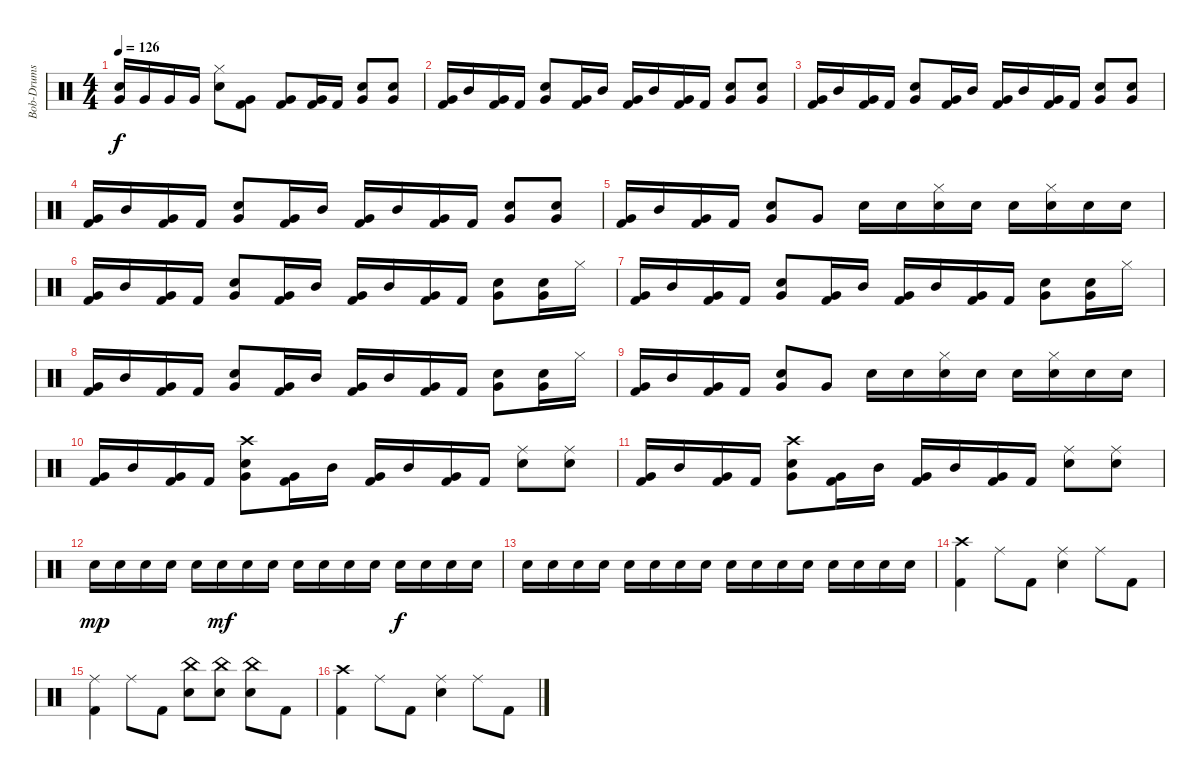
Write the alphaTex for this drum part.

\track ("Bob-Drums" "Bob-Drums") {instrument percussion}
\staff {score}
\articulation defaults
\ts (4 4)
\tempo 126
\clef neutral
\ks c
("Very Low Tom (hit)" "Snare (hit) 2").16{dy f} "Very Low Tom (hit)".16 "Very Low Tom (hit)".16 "Very Low Tom (hit)".16 ("Hi-Hat (closed)" "Snare (hit) 2").8 ("Very Low Tom (hit)" "Kick (hit) 2").8 ("Very Low Tom (hit)" "Kick (hit) 2").8 ("Very Low Tom (hit)" "Kick (hit) 2").16 "Kick (hit) 2".16 ("Very Low Tom (hit)" "Snare (hit) 2").8 ("Very Low Tom (hit)" "Snare (hit) 2").8 |
("Very Low Tom (hit)" "Kick (hit) 2").16 "Mid Tom (hit)".16 ("Very Low Tom (hit)" "Kick (hit) 2").16 "Kick (hit) 2".16 ("Very Low Tom (hit)" "Snare (hit) 2").8 ("Very Low Tom (hit)" "Kick (hit) 2").16 "Mid Tom (hit)".16 ("Very Low Tom (hit)" "Kick (hit) 2").16 "Mid Tom (hit)".16 ("Very Low Tom (hit)" "Kick (hit) 2").16 "Kick (hit) 2".16 ("Very Low Tom (hit)" "Snare (hit) 2").8 ("Very Low Tom (hit)" "Snare (hit) 2").8 |
("Very Low Tom (hit)" "Kick (hit) 2").16 "Mid Tom (hit)".16 ("Very Low Tom (hit)" "Kick (hit) 2").16 "Kick (hit) 2".16 ("Very Low Tom (hit)" "Snare (hit) 2").8 ("Very Low Tom (hit)" "Kick (hit) 2").16 "Mid Tom (hit)".16 ("Very Low Tom (hit)" "Kick (hit) 2").16 "Mid Tom (hit)".16 ("Very Low Tom (hit)" "Kick (hit) 2").16 "Kick (hit) 2".16 ("Very Low Tom (hit)" "Snare (hit) 2").8 ("Very Low Tom (hit)" "Snare (hit) 2").8 |
("Very Low Tom (hit)" "Kick (hit) 2").16 "Mid Tom (hit)".16 ("Very Low Tom (hit)" "Kick (hit) 2").16 "Kick (hit) 2".16 ("Very Low Tom (hit)" "Snare (hit) 2").8 ("Very Low Tom (hit)" "Kick (hit) 2").16 "Mid Tom (hit)".16 ("Very Low Tom (hit)" "Kick (hit) 2").16 "Mid Tom (hit)".16 ("Very Low Tom (hit)" "Kick (hit) 2").16 "Kick (hit) 2".16 ("Very Low Tom (hit)" "Snare (hit) 2").8 ("Very Low Tom (hit)" "Snare (hit) 2").8 |
("Very Low Tom (hit)" "Kick (hit) 2").16 "Mid Tom (hit)".16 ("Very Low Tom (hit)" "Kick (hit) 2").16 "Kick (hit) 2".16 ("Very Low Tom (hit)" "Snare (hit) 2").8 "Very Low Tom (hit)".8 "Snare (hit) 2".16 "Snare (hit) 2".16 ("Hi-Hat (closed)" "Snare (hit) 2").16 "Snare (hit) 2".16 "Snare (hit) 2".16 ("Hi-Hat (closed)" "Snare (hit) 2").16 "Snare (hit) 2".16 "Snare (hit) 2".16 |
("Very Low Tom (hit)" "Kick (hit) 2").16 "Mid Tom (hit)".16 ("Very Low Tom (hit)" "Kick (hit) 2").16 "Kick (hit) 2".16 ("Very Low Tom (hit)" "Snare (hit) 2").8 ("Very Low Tom (hit)" "Kick (hit) 2").16 "Mid Tom (hit)".16 ("Very Low Tom (hit)" "Kick (hit) 2").16 "Mid Tom (hit)".16 ("Very Low Tom (hit)" "Kick (hit) 2").16 "Kick (hit) 2".16 ("Very Low Tom (hit)" "Snare (hit) 2").8 ("Very Low Tom (hit)" "Snare (hit) 2").16 "Hi-Hat (closed)".16 |
("Very Low Tom (hit)" "Kick (hit) 2").16 "Mid Tom (hit)".16 ("Very Low Tom (hit)" "Kick (hit) 2").16 "Kick (hit) 2".16 ("Very Low Tom (hit)" "Snare (hit) 2").8 ("Very Low Tom (hit)" "Kick (hit) 2").16 "Mid Tom (hit)".16 ("Very Low Tom (hit)" "Kick (hit) 2").16 "Mid Tom (hit)".16 ("Very Low Tom (hit)" "Kick (hit) 2").16 "Kick (hit) 2".16 ("Very Low Tom (hit)" "Snare (hit) 2").8 ("Very Low Tom (hit)" "Snare (hit) 2").16 "Hi-Hat (closed)".16 |
("Very Low Tom (hit)" "Kick (hit) 2").16 "Mid Tom (hit)".16 ("Very Low Tom (hit)" "Kick (hit) 2").16 "Kick (hit) 2".16 ("Very Low Tom (hit)" "Snare (hit) 2").8 ("Very Low Tom (hit)" "Kick (hit) 2").16 "Mid Tom (hit)".16 ("Very Low Tom (hit)" "Kick (hit) 2").16 "Mid Tom (hit)".16 ("Very Low Tom (hit)" "Kick (hit) 2").16 "Kick (hit) 2".16 ("Very Low Tom (hit)" "Snare (hit) 2").8 ("Very Low Tom (hit)" "Snare (hit) 2").16 "Hi-Hat (closed)".16 |
("Very Low Tom (hit)" "Kick (hit) 2").16 "Mid Tom (hit)".16 ("Very Low Tom (hit)" "Kick (hit) 2").16 "Kick (hit) 2".16 ("Very Low Tom (hit)" "Snare (hit) 2").8 "Very Low Tom (hit)".8 "Snare (hit) 2".16 "Snare (hit) 2".16 ("Hi-Hat (closed)" "Snare (hit) 2").16 "Snare (hit) 2".16 "Snare (hit) 2".16 ("Hi-Hat (closed)" "Snare (hit) 2").16 "Snare (hit) 2".16 "Snare (hit) 2".16 |
("Very Low Tom (hit)" "Kick (hit) 2").16 "Mid Tom (hit)".16 ("Very Low Tom (hit)" "Kick (hit) 2").16 "Kick (hit) 2".16 ("Crash high (hit)" "Very Low Tom (hit)" "Snare (hit) 2").8 ("Very Low Tom (hit)" "Kick (hit) 2").16 "Mid Tom (hit)".16 ("Very Low Tom (hit)" "Kick (hit) 2").16 "Mid Tom (hit)".16 ("Very Low Tom (hit)" "Kick (hit) 2").16 "Kick (hit) 2".16 ("Ride (middle)" "Snare (hit) 2").8 ("Ride (middle)" "Snare (hit) 2").8 |
("Very Low Tom (hit)" "Kick (hit) 2").16 "Mid Tom (hit)".16 ("Very Low Tom (hit)" "Kick (hit) 2").16 "Kick (hit) 2".16 ("Crash high (hit)" "Very Low Tom (hit)" "Snare (hit) 2").8 ("Very Low Tom (hit)" "Kick (hit) 2").16 "Mid Tom (hit)".16 ("Very Low Tom (hit)" "Kick (hit) 2").16 "Mid Tom (hit)".16 ("Very Low Tom (hit)" "Kick (hit) 2").16 "Kick (hit) 2".16 ("Ride (middle)" "Snare (hit) 2").8 ("Ride (middle)" "Snare (hit) 2").8 |
"Snare (hit) 2".16{dy mp} "Snare (hit) 2".16 "Snare (hit) 2".16 "Snare (hit) 2".16 "Snare (hit) 2".16 "Snare (hit) 2".16{dy mf} "Snare (hit) 2".16 "Snare (hit) 2".16 "Snare (hit) 2".16 "Snare (hit) 2".16 "Snare (hit) 2".16 "Snare (hit) 2".16 "Snare (hit) 2".16{dy f} "Snare (hit) 2".16 "Snare (hit) 2".16 "Snare (hit) 2".16 |
"Snare (hit) 2".16 "Snare (hit) 2".16 "Snare (hit) 2".16 "Snare (hit) 2".16 "Snare (hit) 2".16 "Snare (hit) 2".16 "Snare (hit) 2".16 "Snare (hit) 2".16 "Snare (hit) 2".16 "Snare (hit) 2".16 "Snare (hit) 2".16 "Snare (hit) 2".16 "Snare (hit) 2".16 "Snare (hit) 2".16 "Snare (hit) 2".16 "Snare (hit) 2".16 |
("Crash high (hit)" "Kick (hit) 2").4 "Ride (middle)".8 "Kick (hit) 2".8 ("Ride (middle)" "Snare (hit) 2").4 "Ride (middle)".8 "Kick (hit) 2".8 |
("Ride (middle)" "Kick (hit) 2").4 "Ride (middle)".8 "Kick (hit) 2".8 ("China (hit)" "Snare (hit) 2").8 ("China (hit)" "Snare (hit) 2").8 ("China (hit)" "Snare (hit) 2").8 "Kick (hit) 2".8 |
("Crash high (hit)" "Kick (hit) 2").4 "Ride (middle)".8 "Kick (hit) 2".8 ("Ride (middle)" "Snare (hit) 2").4 "Ride (middle)".8 "Kick (hit) 2".8
